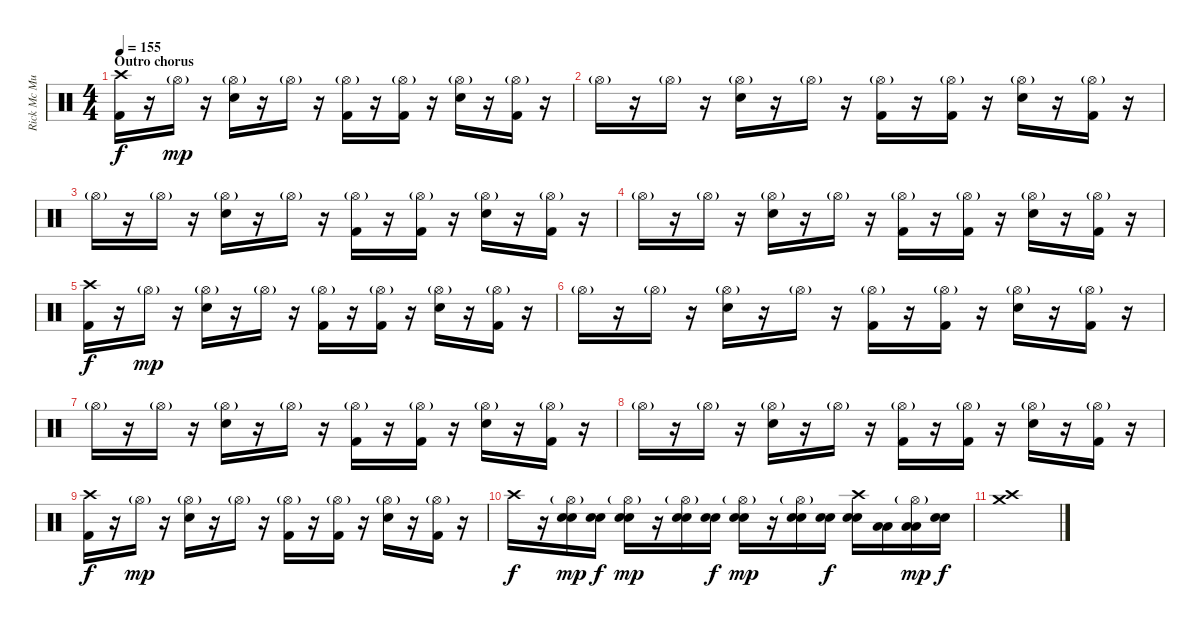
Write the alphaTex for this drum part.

\track ("Rick Mc Murray" "Rick Mc Mu") {instrument percussion}
\staff {score}
\articulation defaults
\ts (4 4)
\section ("" "Outro chorus")
\tempo 155
\clef neutral
\ks c
("Crash high (hit)" "Kick (hit) 2").16{dy f} r.16 "Hi-Hat (open)"{g}.16{dy mp} r.16 ("Hi-Hat (open)"{g} "Electric Snare (hit)").16 r.16 "Hi-Hat (open)"{g}.16 r.16 ("Hi-Hat (open)"{g} "Kick (hit) 2").16 r.16 ("Hi-Hat (open)"{g} "Kick (hit) 2").16 r.16 ("Hi-Hat (open)"{g} "Electric Snare (hit)").16 r.16 ("Hi-Hat (open)"{g} "Kick (hit) 2").16 r.16 |
"Hi-Hat (open)"{g}.16 r.16 "Hi-Hat (open)"{g}.16 r.16 ("Hi-Hat (open)"{g} "Electric Snare (hit)").16 r.16 "Hi-Hat (open)"{g}.16 r.16 ("Hi-Hat (open)"{g} "Kick (hit) 2").16 r.16 ("Hi-Hat (open)"{g} "Kick (hit) 2").16 r.16 ("Hi-Hat (open)"{g} "Electric Snare (hit)").16 r.16 ("Hi-Hat (open)"{g} "Kick (hit) 2").16 r.16 |
"Hi-Hat (open)"{g}.16 r.16 "Hi-Hat (open)"{g}.16 r.16 ("Hi-Hat (open)"{g} "Electric Snare (hit)").16 r.16 "Hi-Hat (open)"{g}.16 r.16 ("Hi-Hat (open)"{g} "Kick (hit) 2").16 r.16 ("Hi-Hat (open)"{g} "Kick (hit) 2").16 r.16 ("Hi-Hat (open)"{g} "Electric Snare (hit)").16 r.16 ("Hi-Hat (open)"{g} "Kick (hit) 2").16 r.16 |
"Hi-Hat (open)"{g}.16 r.16 "Hi-Hat (open)"{g}.16 r.16 ("Hi-Hat (open)"{g} "Electric Snare (hit)").16 r.16 "Hi-Hat (open)"{g}.16 r.16 ("Hi-Hat (open)"{g} "Kick (hit) 2").16 r.16 ("Hi-Hat (open)"{g} "Kick (hit) 2").16 r.16 ("Hi-Hat (open)"{g} "Electric Snare (hit)").16 r.16 ("Hi-Hat (open)"{g} "Kick (hit) 2").16 r.16 |
("Crash high (hit)" "Kick (hit) 2").16{dy f} r.16 "Hi-Hat (open)"{g}.16{dy mp} r.16 ("Hi-Hat (open)"{g} "Electric Snare (hit)").16 r.16 "Hi-Hat (open)"{g}.16 r.16 ("Hi-Hat (open)"{g} "Kick (hit) 2").16 r.16 ("Hi-Hat (open)"{g} "Kick (hit) 2").16 r.16 ("Hi-Hat (open)"{g} "Electric Snare (hit)").16 r.16 ("Hi-Hat (open)"{g} "Kick (hit) 2").16 r.16 |
"Hi-Hat (open)"{g}.16 r.16 "Hi-Hat (open)"{g}.16 r.16 ("Hi-Hat (open)"{g} "Electric Snare (hit)").16 r.16 "Hi-Hat (open)"{g}.16 r.16 ("Hi-Hat (open)"{g} "Kick (hit) 2").16 r.16 ("Hi-Hat (open)"{g} "Kick (hit) 2").16 r.16 ("Hi-Hat (open)"{g} "Electric Snare (hit)").16 r.16 ("Hi-Hat (open)"{g} "Kick (hit) 2").16 r.16 |
"Hi-Hat (open)"{g}.16 r.16 "Hi-Hat (open)"{g}.16 r.16 ("Hi-Hat (open)"{g} "Electric Snare (hit)").16 r.16 "Hi-Hat (open)"{g}.16 r.16 ("Hi-Hat (open)"{g} "Kick (hit) 2").16 r.16 ("Hi-Hat (open)"{g} "Kick (hit) 2").16 r.16 ("Hi-Hat (open)"{g} "Electric Snare (hit)").16 r.16 ("Hi-Hat (open)"{g} "Kick (hit) 2").16 r.16 |
"Hi-Hat (open)"{g}.16 r.16 "Hi-Hat (open)"{g}.16 r.16 ("Hi-Hat (open)"{g} "Electric Snare (hit)").16 r.16 "Hi-Hat (open)"{g}.16 r.16 ("Hi-Hat (open)"{g} "Kick (hit) 2").16 r.16 ("Hi-Hat (open)"{g} "Kick (hit) 2").16 r.16 ("Hi-Hat (open)"{g} "Electric Snare (hit)").16 r.16 ("Hi-Hat (open)"{g} "Kick (hit) 2").16 r.16 |
("Crash high (hit)" "Kick (hit) 2").16{dy f} r.16 "Hi-Hat (open)"{g}.16{dy mp} r.16 ("Hi-Hat (open)"{g} "Electric Snare (hit)").16 r.16 "Hi-Hat (open)"{g}.16 r.16 ("Hi-Hat (open)"{g} "Kick (hit) 2").16 r.16 ("Hi-Hat (open)"{g} "Kick (hit) 2").16 r.16 ("Hi-Hat (open)"{g} "Electric Snare (hit)").16 r.16 ("Hi-Hat (open)"{g} "Kick (hit) 2").16 r.16 |
"Crash high (hit)".16{dy f} r.16 ("Hi-Hat (open)"{g} "Electric Snare (hit)" "Snare (hit) 2").16{dy mp} ("Electric Snare (hit)" "Snare (hit) 2").16{dy f} ("Hi-Hat (open)"{g} "Electric Snare (hit)" "Snare (hit) 2").16{dy mp} r.16 ("Hi-Hat (open)"{g} "Electric Snare (hit)" "Snare (hit) 2").16 ("Electric Snare (hit)" "Snare (hit) 2").16{dy f} ("Hi-Hat (open)"{g} "Electric Snare (hit)" "Snare (hit) 2").16{dy mp} r.16 ("Hi-Hat (open)"{g} "Electric Snare (hit)" "Snare (hit) 2").16 ("Electric Snare (hit)" "Snare (hit) 2").16{dy f} ("Crash high (hit)" "Electric Snare (hit)" "Snare (hit) 2").16 ("Low Tom (hit)" "Low Tom (hit)").16 ("Hi-Hat (open)"{g} "Low Tom (hit)" "Low Tom (hit)").16{dy mp} ("Electric Snare (hit)" "Snare (hit) 2").16{dy f} |
("Crash medium (hit)" "Crash high (hit)").1
